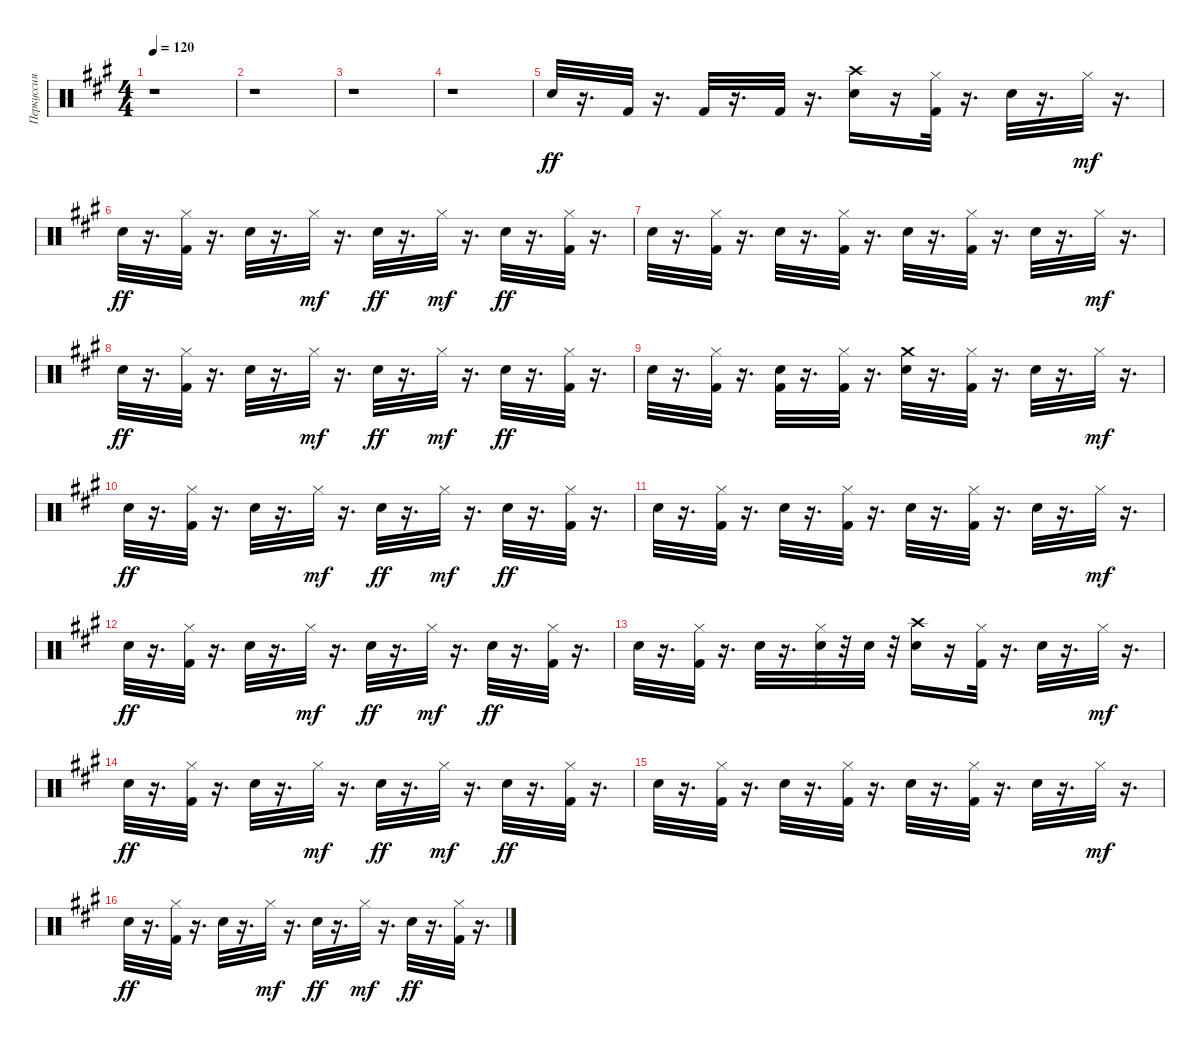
\track ("Перкуссия" "Перкуссия") {instrument percussion}
\staff {score}
\articulation defaults
\ts (4 4)
\tempo 120
\clef neutral
\ks f#minor
r.1{dy ff} |
r.1 |
r.1 |
r.1 |
"Snare (hit) 2".32 r.16{d} "Kick (hit) 2".32 r.16{d} "Kick (hit) 2".32 r.16{d} "Kick (hit) 2".32 r.16{d} ("Crash high (hit)" "Snare (hit) 2").16 r.16 ("Hi-Hat (closed)" "Kick (hit) 2").32 r.16{d} "Snare (hit) 2".32 r.16{d} "Hi-Hat (closed)".32{dy mf} r.16{d} |
"Snare (hit) 2".32{dy ff} r.16{d} ("Hi-Hat (closed)" "Kick (hit) 2").32 r.16{d} "Snare (hit) 2".32 r.16{d} "Hi-Hat (closed)".32{dy mf} r.16{d} "Snare (hit) 2".32{dy ff} r.16{d} "Hi-Hat (closed)".32{dy mf} r.16{d} "Snare (hit) 2".32{dy ff} r.16{d} ("Hi-Hat (closed)" "Kick (hit) 2").32 r.16{d} |
"Snare (hit) 2".32 r.16{d} ("Hi-Hat (closed)" "Kick (hit) 2").32 r.16{d} "Snare (hit) 2".32 r.16{d} ("Hi-Hat (closed)" "Kick (hit) 2").32 r.16{d} "Snare (hit) 2".32 r.16{d} ("Hi-Hat (closed)" "Kick (hit) 2").32 r.16{d} "Snare (hit) 2".32 r.16{d} "Hi-Hat (closed)".32{dy mf} r.16{d} |
"Snare (hit) 2".32{dy ff} r.16{d} ("Hi-Hat (closed)" "Kick (hit) 2").32 r.16{d} "Snare (hit) 2".32 r.16{d} "Hi-Hat (closed)".32{dy mf} r.16{d} "Snare (hit) 2".32{dy ff} r.16{d} "Hi-Hat (closed)".32{dy mf} r.16{d} "Snare (hit) 2".32{dy ff} r.16{d} ("Hi-Hat (closed)" "Kick (hit) 2").32 r.16{d} |
"Snare (hit) 2".32 r.16{d} ("Hi-Hat (closed)" "Kick (hit) 2").32 r.16{d} ("Kick (hit) 2" "Snare (hit) 2").32 r.16{d} ("Hi-Hat (closed)" "Kick (hit) 2").32 r.16{d} ("Crash medium (hit)" "Snare (hit) 2").32 r.16{d} ("Hi-Hat (closed)" "Kick (hit) 2").32 r.16{d} "Snare (hit) 2".32 r.16{d} "Hi-Hat (closed)".32{dy mf} r.16{d} |
"Snare (hit) 2".32{dy ff} r.16{d} ("Hi-Hat (closed)" "Kick (hit) 2").32 r.16{d} "Snare (hit) 2".32 r.16{d} "Hi-Hat (closed)".32{dy mf} r.16{d} "Snare (hit) 2".32{dy ff} r.16{d} "Hi-Hat (closed)".32{dy mf} r.16{d} "Snare (hit) 2".32{dy ff} r.16{d} ("Hi-Hat (closed)" "Kick (hit) 2").32 r.16{d} |
"Snare (hit) 2".32 r.16{d} ("Hi-Hat (closed)" "Kick (hit) 2").32 r.16{d} "Snare (hit) 2".32 r.16{d} ("Hi-Hat (closed)" "Kick (hit) 2").32 r.16{d} "Snare (hit) 2".32 r.16{d} ("Hi-Hat (closed)" "Kick (hit) 2").32 r.16{d} "Snare (hit) 2".32 r.16{d} "Hi-Hat (closed)".32{dy mf} r.16{d} |
"Snare (hit) 2".32{dy ff} r.16{d} ("Hi-Hat (closed)" "Kick (hit) 2").32 r.16{d} "Snare (hit) 2".32 r.16{d} "Hi-Hat (closed)".32{dy mf} r.16{d} "Snare (hit) 2".32{dy ff} r.16{d} "Hi-Hat (closed)".32{dy mf} r.16{d} "Snare (hit) 2".32{dy ff} r.16{d} ("Hi-Hat (closed)" "Kick (hit) 2").32 r.16{d} |
"Snare (hit) 2".32 r.16{d} ("Hi-Hat (closed)" "Kick (hit) 2").32 r.16{d} "Snare (hit) 2".32 r.16{d} ("Hi-Hat (closed)" "Snare (hit) 2").32 r.32 "Snare (hit) 2".32 r.32 ("Crash high (hit)" "Snare (hit) 2").16 r.16 ("Hi-Hat (closed)" "Kick (hit) 2").32 r.16{d} "Snare (hit) 2".32 r.16{d} "Hi-Hat (closed)".32{dy mf} r.16{d} |
"Snare (hit) 2".32{dy ff} r.16{d} ("Hi-Hat (closed)" "Kick (hit) 2").32 r.16{d} "Snare (hit) 2".32 r.16{d} "Hi-Hat (closed)".32{dy mf} r.16{d} "Snare (hit) 2".32{dy ff} r.16{d} "Hi-Hat (closed)".32{dy mf} r.16{d} "Snare (hit) 2".32{dy ff} r.16{d} ("Hi-Hat (closed)" "Kick (hit) 2").32 r.16{d} |
"Snare (hit) 2".32 r.16{d} ("Hi-Hat (closed)" "Kick (hit) 2").32 r.16{d} "Snare (hit) 2".32 r.16{d} ("Hi-Hat (closed)" "Kick (hit) 2").32 r.16{d} "Snare (hit) 2".32 r.16{d} ("Hi-Hat (closed)" "Kick (hit) 2").32 r.16{d} "Snare (hit) 2".32 r.16{d} "Hi-Hat (closed)".32{dy mf} r.16{d} |
"Snare (hit) 2".32{dy ff} r.16{d} ("Hi-Hat (closed)" "Kick (hit) 2").32 r.16{d} "Snare (hit) 2".32 r.16{d} "Hi-Hat (closed)".32{dy mf} r.16{d} "Snare (hit) 2".32{dy ff} r.16{d} "Hi-Hat (closed)".32{dy mf} r.16{d} "Snare (hit) 2".32{dy ff} r.16{d} ("Hi-Hat (closed)" "Kick (hit) 2").32 r.16{d}
